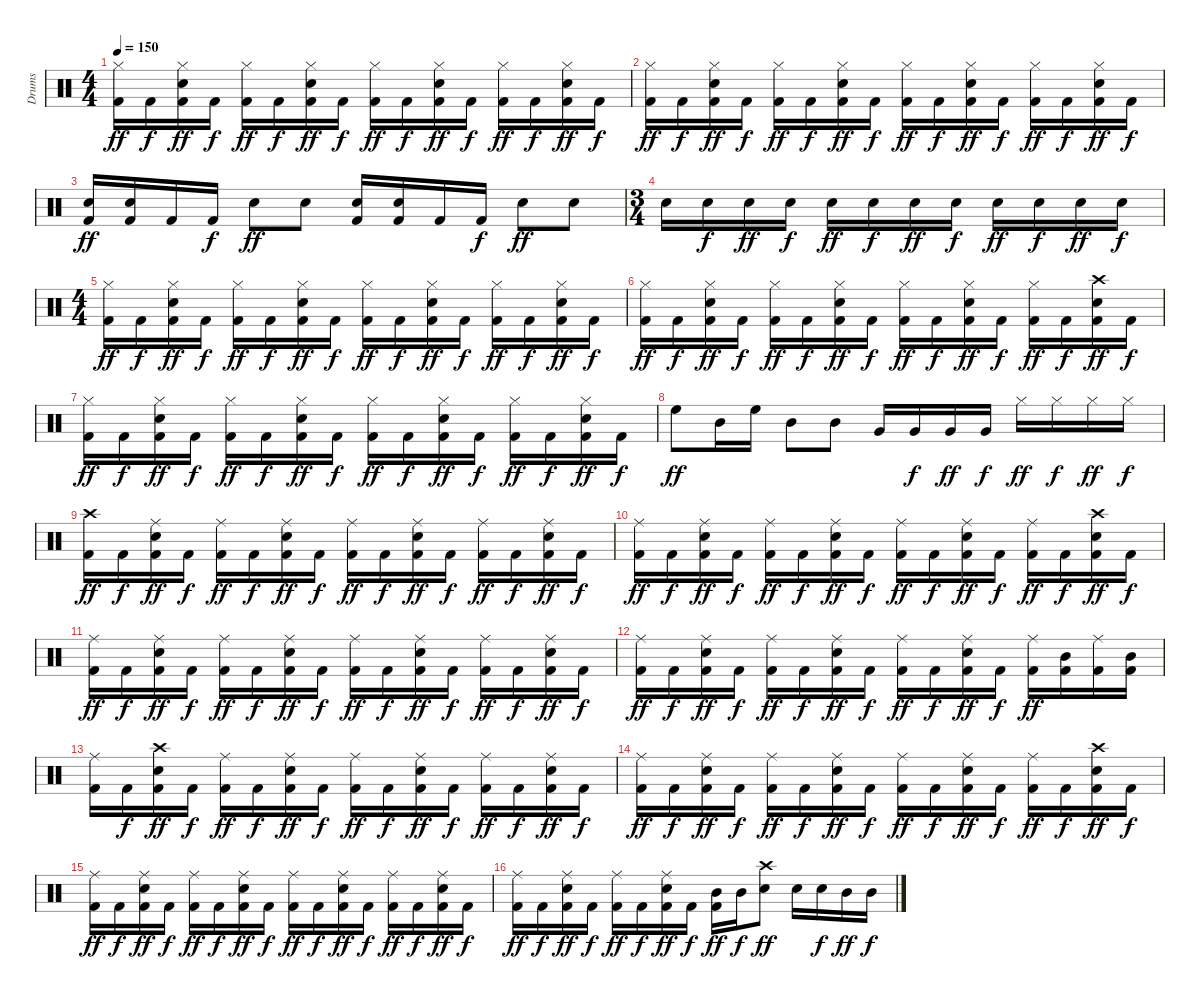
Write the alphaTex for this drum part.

\track ("Drums" "Drums") {instrument percussion}
\staff {score}
\articulation defaults
\ts (4 4)
\tempo 150
\clef neutral
\ks c
("Hi-Hat (closed)" "Kick (hit) 2").16{dy ff} "Kick (hit) 2".16{dy f} ("Hi-Hat (closed)" "Snare (hit) 2" "Kick (hit) 2").16{dy ff} "Kick (hit) 2".16{dy f} ("Hi-Hat (closed)" "Kick (hit) 2").16{dy ff} "Kick (hit) 2".16{dy f} ("Hi-Hat (closed)" "Snare (hit) 2" "Kick (hit) 2").16{dy ff} "Kick (hit) 2".16{dy f} ("Hi-Hat (closed)" "Kick (hit) 2").16{dy ff} "Kick (hit) 2".16{dy f} ("Hi-Hat (closed)" "Snare (hit) 2" "Kick (hit) 2").16{dy ff} "Kick (hit) 2".16{dy f} ("Hi-Hat (closed)" "Kick (hit) 2").16{dy ff} "Kick (hit) 2".16{dy f} ("Hi-Hat (closed)" "Snare (hit) 2" "Kick (hit) 2").16{dy ff} "Kick (hit) 2".16{dy f} |
("Hi-Hat (closed)" "Kick (hit) 2").16{dy ff} "Kick (hit) 2".16{dy f} ("Hi-Hat (closed)" "Snare (hit) 2" "Kick (hit) 2").16{dy ff} "Kick (hit) 2".16{dy f} ("Hi-Hat (closed)" "Kick (hit) 2").16{dy ff} "Kick (hit) 2".16{dy f} ("Hi-Hat (closed)" "Snare (hit) 2" "Kick (hit) 2").16{dy ff} "Kick (hit) 2".16{dy f} ("Hi-Hat (closed)" "Kick (hit) 2").16{dy ff} "Kick (hit) 2".16{dy f} ("Hi-Hat (closed)" "Snare (hit) 2" "Kick (hit) 2").16{dy ff} "Kick (hit) 2".16{dy f} ("Hi-Hat (closed)" "Kick (hit) 2").16{dy ff} "Kick (hit) 2".16{dy f} ("Hi-Hat (closed)" "Snare (hit) 2" "Kick (hit) 2").16{dy ff} "Kick (hit) 2".16{dy f} |
("Snare (hit) 2" "Kick (hit) 2").16{dy ff} ("Kick (hit) 2" "Snare (hit) 2").16 "Kick (hit) 2".16 "Kick (hit) 2".16{dy f} "Snare (hit) 2".8{dy ff} "Snare (hit) 2".8 ("Snare (hit) 2" "Kick (hit) 2").16 ("Kick (hit) 2" "Snare (hit) 2").16 "Kick (hit) 2".16 "Kick (hit) 2".16{dy f} "Snare (hit) 2".8{dy ff} "Snare (hit) 2".8 |
\ts (3 4)
"Snare (hit) 2".16 "Snare (hit) 2".16{dy f} "Snare (hit) 2".16{dy ff} "Snare (hit) 2".16{dy f} "Snare (hit) 2".16{dy ff} "Snare (hit) 2".16{dy f} "Snare (hit) 2".16{dy ff} "Snare (hit) 2".16{dy f} "Snare (hit) 2".16{dy ff} "Snare (hit) 2".16{dy f} "Snare (hit) 2".16{dy ff} "Snare (hit) 2".16{dy f} |
\ts (4 4)
("Hi-Hat (closed)" "Kick (hit) 2").16{dy ff} "Kick (hit) 2".16{dy f} ("Hi-Hat (closed)" "Snare (hit) 2" "Kick (hit) 2").16{dy ff} "Kick (hit) 2".16{dy f} ("Hi-Hat (closed)" "Kick (hit) 2").16{dy ff} "Kick (hit) 2".16{dy f} ("Hi-Hat (closed)" "Snare (hit) 2" "Kick (hit) 2").16{dy ff} "Kick (hit) 2".16{dy f} ("Hi-Hat (closed)" "Kick (hit) 2").16{dy ff} "Kick (hit) 2".16{dy f} ("Hi-Hat (closed)" "Snare (hit) 2" "Kick (hit) 2").16{dy ff} "Kick (hit) 2".16{dy f} ("Hi-Hat (closed)" "Kick (hit) 2").16{dy ff} "Kick (hit) 2".16{dy f} ("Hi-Hat (closed)" "Snare (hit) 2" "Kick (hit) 2").16{dy ff} "Kick (hit) 2".16{dy f} |
("Hi-Hat (closed)" "Kick (hit) 2").16{dy ff} "Kick (hit) 2".16{dy f} ("Hi-Hat (closed)" "Snare (hit) 2" "Kick (hit) 2").16{dy ff} "Kick (hit) 2".16{dy f} ("Hi-Hat (closed)" "Kick (hit) 2").16{dy ff} "Kick (hit) 2".16{dy f} ("Hi-Hat (closed)" "Snare (hit) 2" "Kick (hit) 2").16{dy ff} "Kick (hit) 2".16{dy f} ("Hi-Hat (closed)" "Kick (hit) 2").16{dy ff} "Kick (hit) 2".16{dy f} ("Hi-Hat (closed)" "Snare (hit) 2" "Kick (hit) 2").16{dy ff} "Kick (hit) 2".16{dy f} ("Hi-Hat (closed)" "Kick (hit) 2").16{dy ff} "Kick (hit) 2".16{dy f} ("Kick (hit) 2" "Crash high (hit)" "Snare (hit) 2").16{dy ff} "Kick (hit) 2".16{dy f} |
("Hi-Hat (closed)" "Kick (hit) 2").16{dy ff} "Kick (hit) 2".16{dy f} ("Hi-Hat (closed)" "Snare (hit) 2" "Kick (hit) 2").16{dy ff} "Kick (hit) 2".16{dy f} ("Hi-Hat (closed)" "Kick (hit) 2").16{dy ff} "Kick (hit) 2".16{dy f} ("Hi-Hat (closed)" "Snare (hit) 2" "Kick (hit) 2").16{dy ff} "Kick (hit) 2".16{dy f} ("Hi-Hat (closed)" "Kick (hit) 2").16{dy ff} "Kick (hit) 2".16{dy f} ("Hi-Hat (closed)" "Snare (hit) 2" "Kick (hit) 2").16{dy ff} "Kick (hit) 2".16{dy f} ("Hi-Hat (closed)" "Kick (hit) 2").16{dy ff} "Kick (hit) 2".16{dy f} ("Hi-Hat (closed)" "Snare (hit) 2" "Kick (hit) 2").16{dy ff} "Kick (hit) 2".16{dy f} |
"High Floor Tom (hit)".8{dy ff} "Mid Tom (hit)".16 "High Floor Tom (hit)".16 "Mid Tom (hit)".8 "Mid Tom (hit)".8 "Very Low Tom (hit)".16 "Very Low Tom (hit)".16{dy f} "Very Low Tom (hit)".16{dy ff} "Very Low Tom (hit)".16{dy f} "Hi-Hat (closed)".16{dy ff} "Hi-Hat (closed)".16{dy f} "Hi-Hat (closed)".16{dy ff} "Hi-Hat (closed)".16{dy f} |
("Crash high (hit)" "Kick (hit) 2").16{dy ff} "Kick (hit) 2".16{dy f} ("Ride (middle)" "Snare (hit) 2" "Kick (hit) 2").16{dy ff} "Kick (hit) 2".16{dy f} ("Ride (middle)" "Kick (hit) 2").16{dy ff} "Kick (hit) 2".16{dy f} ("Ride (middle)" "Snare (hit) 2" "Kick (hit) 2").16{dy ff} "Kick (hit) 2".16{dy f} ("Ride (middle)" "Kick (hit) 2").16{dy ff} "Kick (hit) 2".16{dy f} ("Ride (middle)" "Snare (hit) 2" "Kick (hit) 2").16{dy ff} "Kick (hit) 2".16{dy f} ("Ride (middle)" "Kick (hit) 2").16{dy ff} "Kick (hit) 2".16{dy f} ("Ride (middle)" "Snare (hit) 2" "Kick (hit) 2").16{dy ff} "Kick (hit) 2".16{dy f} |
("Ride (middle)" "Kick (hit) 2").16{dy ff} "Kick (hit) 2".16{dy f} ("Ride (middle)" "Snare (hit) 2" "Kick (hit) 2").16{dy ff} "Kick (hit) 2".16{dy f} ("Ride (middle)" "Kick (hit) 2").16{dy ff} "Kick (hit) 2".16{dy f} ("Ride (middle)" "Snare (hit) 2" "Kick (hit) 2").16{dy ff} "Kick (hit) 2".16{dy f} ("Ride (middle)" "Kick (hit) 2").16{dy ff} "Kick (hit) 2".16{dy f} ("Ride (middle)" "Snare (hit) 2" "Kick (hit) 2").16{dy ff} "Kick (hit) 2".16{dy f} ("Ride (middle)" "Kick (hit) 2").16{dy ff} "Kick (hit) 2".16{dy f} ("Kick (hit) 2" "Crash high (hit)" "Snare (hit) 2").16{dy ff} "Kick (hit) 2".16{dy f} |
("Ride (middle)" "Kick (hit) 2").16{dy ff} "Kick (hit) 2".16{dy f} ("Ride (middle)" "Snare (hit) 2" "Kick (hit) 2").16{dy ff} "Kick (hit) 2".16{dy f} ("Ride (middle)" "Kick (hit) 2").16{dy ff} "Kick (hit) 2".16{dy f} ("Ride (middle)" "Snare (hit) 2" "Kick (hit) 2").16{dy ff} "Kick (hit) 2".16{dy f} ("Ride (middle)" "Kick (hit) 2").16{dy ff} "Kick (hit) 2".16{dy f} ("Ride (middle)" "Snare (hit) 2" "Kick (hit) 2").16{dy ff} "Kick (hit) 2".16{dy f} ("Ride (middle)" "Kick (hit) 2").16{dy ff} "Kick (hit) 2".16{dy f} ("Ride (middle)" "Snare (hit) 2" "Kick (hit) 2").16{dy ff} "Kick (hit) 2".16{dy f} |
("Ride (middle)" "Kick (hit) 2").16{dy ff} "Kick (hit) 2".16{dy f} ("Ride (middle)" "Snare (hit) 2" "Kick (hit) 2").16{dy ff} "Kick (hit) 2".16{dy f} ("Ride (middle)" "Kick (hit) 2").16{dy ff} "Kick (hit) 2".16{dy f} ("Ride (middle)" "Snare (hit) 2" "Kick (hit) 2").16{dy ff} "Kick (hit) 2".16{dy f} ("Ride (middle)" "Kick (hit) 2").16{dy ff} "Kick (hit) 2".16{dy f} ("Ride (middle)" "Snare (hit) 2" "Kick (hit) 2").16{dy ff} "Kick (hit) 2".16{dy f} ("Ride (middle)" "Kick (hit) 2").16{dy ff} ("Mid Tom (hit)" "Kick (hit) 2").16 ("Ride (middle)" "Kick (hit) 2").16 ("Mid Tom (hit)" "Kick (hit) 2").16 |
("Ride (middle)" "Kick (hit) 2").16 "Kick (hit) 2".16{dy f} ("Kick (hit) 2" "Crash high (hit)" "Snare (hit) 2").16{dy ff} "Kick (hit) 2".16{dy f} ("Ride (middle)" "Kick (hit) 2").16{dy ff} "Kick (hit) 2".16{dy f} ("Ride (middle)" "Snare (hit) 2" "Kick (hit) 2").16{dy ff} "Kick (hit) 2".16{dy f} ("Ride (middle)" "Kick (hit) 2").16{dy ff} "Kick (hit) 2".16{dy f} ("Ride (middle)" "Snare (hit) 2" "Kick (hit) 2").16{dy ff} "Kick (hit) 2".16{dy f} ("Ride (middle)" "Kick (hit) 2").16{dy ff} "Kick (hit) 2".16{dy f} ("Ride (middle)" "Snare (hit) 2" "Kick (hit) 2").16{dy ff} "Kick (hit) 2".16{dy f} |
("Ride (middle)" "Kick (hit) 2").16{dy ff} "Kick (hit) 2".16{dy f} ("Ride (middle)" "Snare (hit) 2" "Kick (hit) 2").16{dy ff} "Kick (hit) 2".16{dy f} ("Ride (middle)" "Kick (hit) 2").16{dy ff} "Kick (hit) 2".16{dy f} ("Ride (middle)" "Snare (hit) 2" "Kick (hit) 2").16{dy ff} "Kick (hit) 2".16{dy f} ("Ride (middle)" "Kick (hit) 2").16{dy ff} "Kick (hit) 2".16{dy f} ("Ride (middle)" "Snare (hit) 2" "Kick (hit) 2").16{dy ff} "Kick (hit) 2".16{dy f} ("Ride (middle)" "Kick (hit) 2").16{dy ff} "Kick (hit) 2".16{dy f} ("Kick (hit) 2" "Crash high (hit)" "Snare (hit) 2").16{dy ff} "Kick (hit) 2".16{dy f} |
("Ride (middle)" "Kick (hit) 2").16{dy ff} "Kick (hit) 2".16{dy f} ("Ride (middle)" "Snare (hit) 2" "Kick (hit) 2").16{dy ff} "Kick (hit) 2".16{dy f} ("Ride (middle)" "Kick (hit) 2").16{dy ff} "Kick (hit) 2".16{dy f} ("Ride (middle)" "Snare (hit) 2" "Kick (hit) 2").16{dy ff} "Kick (hit) 2".16{dy f} ("Ride (middle)" "Kick (hit) 2").16{dy ff} "Kick (hit) 2".16{dy f} ("Ride (middle)" "Snare (hit) 2" "Kick (hit) 2").16{dy ff} "Kick (hit) 2".16{dy f} ("Ride (middle)" "Kick (hit) 2").16{dy ff} "Kick (hit) 2".16{dy f} ("Ride (middle)" "Snare (hit) 2" "Kick (hit) 2").16{dy ff} "Kick (hit) 2".16{dy f} |
("Ride (middle)" "Kick (hit) 2").16{dy ff} "Kick (hit) 2".16{dy f} ("Ride (middle)" "Snare (hit) 2" "Kick (hit) 2").16{dy ff} "Kick (hit) 2".16{dy f} ("Ride (middle)" "Kick (hit) 2").16{dy ff} "Kick (hit) 2".16{dy f} ("Ride (middle)" "Snare (hit) 2" "Kick (hit) 2").16{dy ff} "Kick (hit) 2".16{dy f} ("Mid Tom (hit)" "Kick (hit) 2").16{dy ff} "Mid Tom (hit)".16{dy f} ("Crash high (hit)" "Snare (hit) 2").8{dy ff} "Snare (hit) 2".16 "Snare (hit) 2".16{dy f} "Mid Tom (hit)".16{dy ff} "Mid Tom (hit)".16{dy f}
